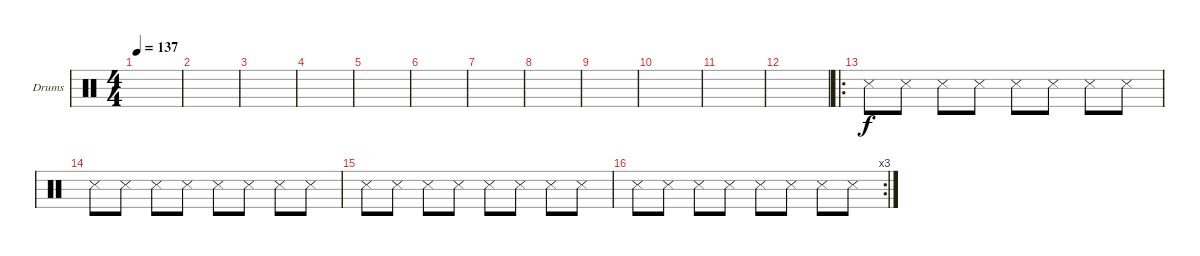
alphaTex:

\defaultSystemsLayout 4
\bracketExtendMode groupsimilarinstruments
\firstSystemTrackNameOrientation horizontal
\otherSystemsTrackNameOrientation horizontal
\track ("Drumkit" "Drums") {instrument percussion}
\staff {score}
\articulation defaults
\ts (4 4)
\tempo 137
\clef neutral
\ks c
|
|
|
|
|
|
|
|
|
|
|
|
\ro "Snare (side stick) 3".8 "Snare (side stick) 3".8 "Snare (side stick) 3".8 "Snare (side stick) 3".8 "Snare (side stick) 3".8 "Snare (side stick) 3".8 "Snare (side stick) 3".8 "Snare (side stick) 3".8
|
"Snare (side stick) 3".8 "Snare (side stick) 3".8 "Snare (side stick) 3".8 "Snare (side stick) 3".8 "Snare (side stick) 3".8 "Snare (side stick) 3".8 "Snare (side stick) 3".8 "Snare (side stick) 3".8 |
"Snare (side stick) 3".8 "Snare (side stick) 3".8 "Snare (side stick) 3".8 "Snare (side stick) 3".8 "Snare (side stick) 3".8 "Snare (side stick) 3".8 "Snare (side stick) 3".8 "Snare (side stick) 3".8 |
\rc 3 "Snare (side stick) 3".8 "Snare (side stick) 3".8 "Snare (side stick) 3".8 "Snare (side stick) 3".8 "Snare (side stick) 3".8 "Snare (side stick) 3".8 "Snare (side stick) 3".8 "Snare (side stick) 3".8
